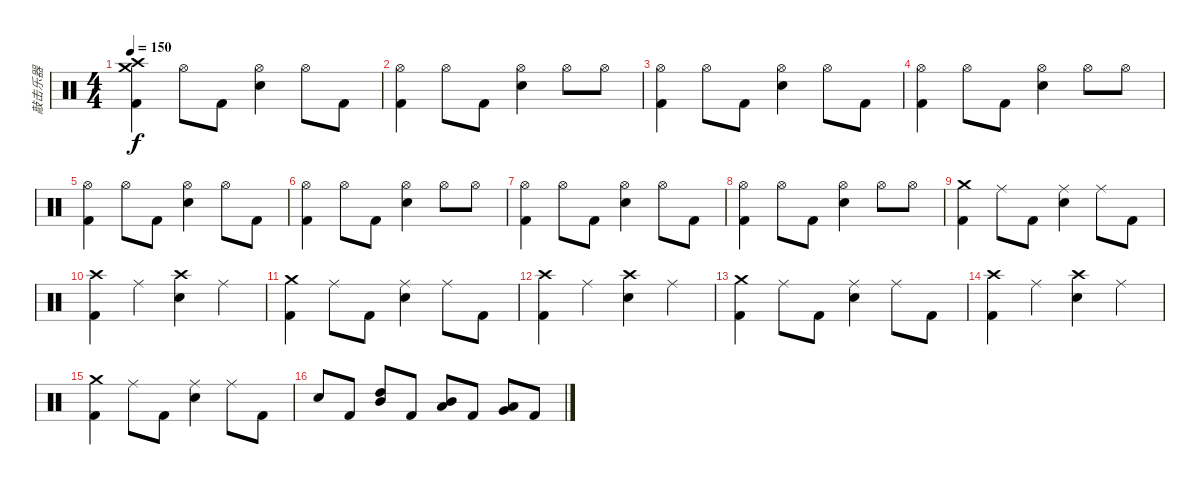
\track ("敲击乐器" "敲击乐器") {instrument percussion}
\staff {score}
\articulation defaults
\ts (4 4)
\tempo 150
\clef neutral
\ks c
("Crash medium (hit)" "Crash high (hit)" "Kick (hit) 2").4{dy f} "Hi-Hat (open)".8 "Kick (hit) 2".8 ("Hi-Hat (open)" "Snare (hit) 2").4 "Hi-Hat (open)".8 "Kick (hit) 2".8 |
("Hi-Hat (open)" "Kick (hit) 2").4 "Hi-Hat (open)".8 "Kick (hit) 2".8 ("Hi-Hat (open)" "Snare (hit) 2").4 "Hi-Hat (open)".8 "Hi-Hat (open)".8 |
("Hi-Hat (open)" "Kick (hit) 2").4 "Hi-Hat (open)".8 "Kick (hit) 2".8 ("Hi-Hat (open)" "Snare (hit) 2").4 "Hi-Hat (open)".8 "Kick (hit) 2".8 |
("Hi-Hat (open)" "Kick (hit) 2").4 "Hi-Hat (open)".8 "Kick (hit) 2".8 ("Hi-Hat (open)" "Snare (hit) 2").4 "Hi-Hat (open)".8 "Hi-Hat (open)".8 |
("Hi-Hat (open)" "Kick (hit) 2").4 "Hi-Hat (open)".8 "Kick (hit) 2".8 ("Hi-Hat (open)" "Snare (hit) 2").4 "Hi-Hat (open)".8 "Kick (hit) 2".8 |
("Hi-Hat (open)" "Kick (hit) 2").4 "Hi-Hat (open)".8 "Kick (hit) 2".8 ("Hi-Hat (open)" "Snare (hit) 2").4 "Hi-Hat (open)".8 "Hi-Hat (open)".8 |
("Hi-Hat (open)" "Kick (hit) 2").4 "Hi-Hat (open)".8 "Kick (hit) 2".8 ("Hi-Hat (open)" "Snare (hit) 2").4 "Hi-Hat (open)".8 "Kick (hit) 2".8 |
("Hi-Hat (open)" "Kick (hit) 2").4 "Hi-Hat (open)".8 "Kick (hit) 2".8 ("Hi-Hat (open)" "Snare (hit) 2").4 "Hi-Hat (open)".8 "Hi-Hat (open)".8 |
("Crash medium (hit)" "Kick (hit) 2").4 "Ride (middle)".8 "Kick (hit) 2".8 ("Snare (hit) 2" "Ride (middle)").4 "Ride (middle)".8 "Kick (hit) 2".8 |
("Kick (hit) 2" "Crash high (hit)").4 "Ride (middle)".4 ("Crash high (hit)" "Snare (hit) 2").4 "Ride (middle)".4 |
("Crash medium (hit)" "Kick (hit) 2").4 "Ride (middle)".8 "Kick (hit) 2".8 ("Snare (hit) 2" "Ride (middle)").4 "Ride (middle)".8 "Kick (hit) 2".8 |
("Kick (hit) 2" "Crash high (hit)").4 "Ride (middle)".4 ("Crash high (hit)" "Snare (hit) 2").4 "Ride (middle)".4 |
("Crash medium (hit)" "Kick (hit) 2").4 "Ride (middle)".8 "Kick (hit) 2".8 ("Snare (hit) 2" "Ride (middle)").4 "Ride (middle)".8 "Kick (hit) 2".8 |
("Kick (hit) 2" "Crash high (hit)").4 "Ride (middle)".4 ("Crash high (hit)" "Snare (hit) 2").4 "Ride (middle)".4 |
("Crash medium (hit)" "Kick (hit) 2").4 "Ride (middle)".8 "Kick (hit) 2".8 ("Snare (hit) 2" "Ride (middle)").4 "Ride (middle)".8 "Kick (hit) 2".8 |
"Snare (hit) 2".8 "Kick (hit) 2".8 ("High Tom (hit)" "Mid Tom (hit)").8 "Kick (hit) 2".8 ("Mid Tom (hit)" "Low Tom (hit)").8 "Kick (hit) 2".8 ("Low Tom (hit)" "Very Low Tom (hit)").8 "Kick (hit) 2".8
